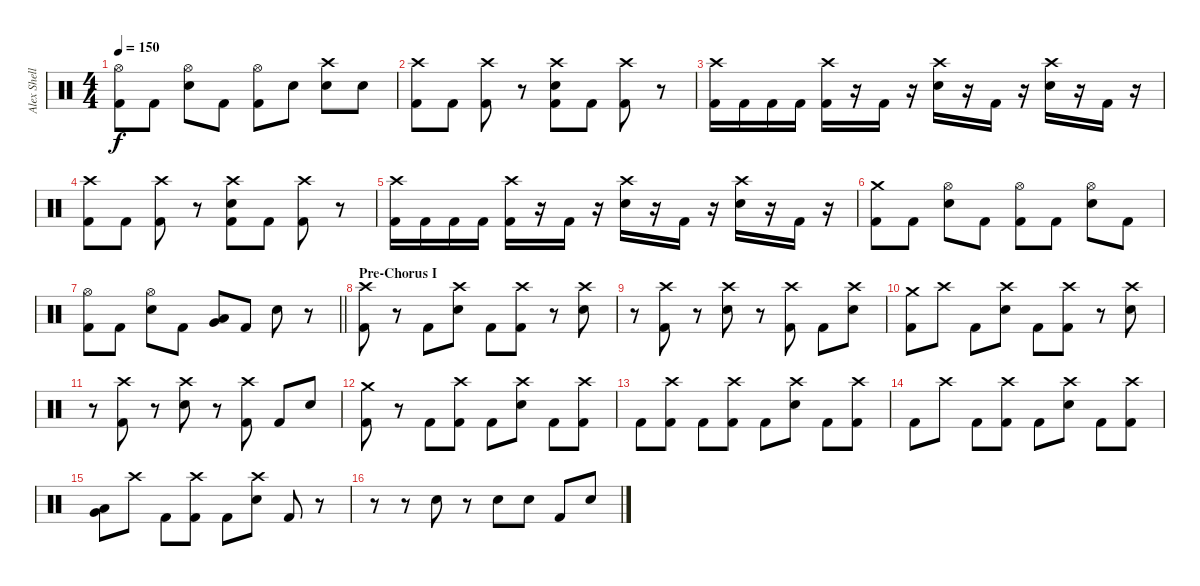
\track ("Alex Shellnutt" "Alex Shell") {instrument percussion}
\staff {score}
\articulation defaults
\ts (4 4)
\tempo 150
\clef neutral
\ks c
("Hi-Hat (open)" "Kick (hit) 2").8{dy f} "Kick (hit) 2".8 ("Hi-Hat (open)" "Snare (hit) 2").8 "Kick (hit) 2".8 ("Hi-Hat (open)" "Kick (hit) 2").8 "Snare (hit) 2".8 ("Crash high (hit)" "Snare (hit) 2").8 "Snare (hit) 2".8 |
("Crash high (hit)" "Kick (hit) 2").8 "Kick (hit) 2".8 ("Crash high (hit)" "Kick (hit) 2").8 r.8 ("Crash high (hit)" "Snare (hit) 2" "Kick (hit) 2").8 "Kick (hit) 2".8 ("Crash high (hit)" "Kick (hit) 2").8 r.8 |
("Crash high (hit)" "Kick (hit) 2").16 "Kick (hit) 2".16 "Kick (hit) 2".16 "Kick (hit) 2".16 ("Crash high (hit)" "Kick (hit) 2").16 r.16 "Kick (hit) 2".16 r.16 ("Crash high (hit)" "Snare (hit) 2").16 r.16 "Kick (hit) 2".16 r.16 ("Crash high (hit)" "Snare (hit) 2").16 r.16 "Kick (hit) 2".16 r.16 |
("Crash high (hit)" "Kick (hit) 2").8 "Kick (hit) 2".8 ("Crash high (hit)" "Kick (hit) 2").8 r.8 ("Crash high (hit)" "Snare (hit) 2" "Kick (hit) 2").8 "Kick (hit) 2".8 ("Crash high (hit)" "Kick (hit) 2").8 r.8 |
("Crash high (hit)" "Kick (hit) 2").16 "Kick (hit) 2".16 "Kick (hit) 2".16 "Kick (hit) 2".16 ("Crash high (hit)" "Kick (hit) 2").16 r.16 "Kick (hit) 2".16 r.16 ("Crash high (hit)" "Snare (hit) 2").16 r.16 "Kick (hit) 2".16 r.16 ("Crash high (hit)" "Snare (hit) 2").16 r.16 "Kick (hit) 2".16 r.16 |
("Crash medium (hit)" "Kick (hit) 2").8 "Kick (hit) 2".8 ("Hi-Hat (open)" "Snare (hit) 2").8 "Kick (hit) 2".8 ("Hi-Hat (open)" "Kick (hit) 2").8 "Kick (hit) 2".8 ("Hi-Hat (open)" "Snare (hit) 2").8 "Kick (hit) 2".8 |
\barLineRight lightlight
("Hi-Hat (open)" "Kick (hit) 2").8 "Kick (hit) 2".8 ("Hi-Hat (open)" "Snare (hit) 2").8 "Kick (hit) 2".8 ("Very Low Tom (hit)" "Low Floor Tom (hit)").8 "Kick (hit) 2".8 "Snare (hit) 2".8 r.8 |
\section ("" "Pre-Chorus I")
("Crash high (hit)" "Kick (hit) 2").8 r.8 "Kick (hit) 2".8 ("Crash high (hit)" "Snare (hit) 2").8 "Kick (hit) 2".8 ("Crash high (hit)" "Kick (hit) 2").8 r.8 ("Crash high (hit)" "Snare (hit) 2").8 |
r.8 ("Crash high (hit)" "Kick (hit) 2").8 r.8 ("Crash high (hit)" "Snare (hit) 2").8 r.8 ("Crash high (hit)" "Kick (hit) 2").8 "Kick (hit) 2".8 ("Crash high (hit)" "Snare (hit) 2").8 |
("Crash medium (hit)" "Kick (hit) 2").8 "Crash high (hit)".8 "Kick (hit) 2".8 ("Crash high (hit)" "Snare (hit) 2").8 "Kick (hit) 2".8 ("Crash high (hit)" "Kick (hit) 2").8 r.8 ("Crash high (hit)" "Snare (hit) 2").8 |
r.8 ("Crash high (hit)" "Kick (hit) 2").8 r.8 ("Crash high (hit)" "Snare (hit) 2").8 r.8 ("Crash high (hit)" "Kick (hit) 2").8 "Kick (hit) 2".8 "Snare (hit) 2".8 |
("Crash medium (hit)" "Kick (hit) 2").8 r.8 "Kick (hit) 2".8 ("Crash high (hit)" "Kick (hit) 2").8 "Kick (hit) 2".8 ("Crash high (hit)" "Snare (hit) 2").8 "Kick (hit) 2".8 ("Crash high (hit)" "Kick (hit) 2").8 |
"Kick (hit) 2".8 ("Crash high (hit)" "Kick (hit) 2").8 "Kick (hit) 2".8 ("Crash high (hit)" "Kick (hit) 2").8 "Kick (hit) 2".8 ("Crash high (hit)" "Snare (hit) 2").8 "Kick (hit) 2".8 ("Crash high (hit)" "Kick (hit) 2").8 |
"Kick (hit) 2".8 "Crash high (hit)".8 "Kick (hit) 2".8 ("Crash high (hit)" "Kick (hit) 2").8 "Kick (hit) 2".8 ("Crash high (hit)" "Snare (hit) 2").8 "Kick (hit) 2".8 ("Crash high (hit)" "Kick (hit) 2").8 |
("Low Floor Tom (hit)" "Very Low Tom (hit)").8 "Crash high (hit)".8 "Kick (hit) 2".8 ("Crash high (hit)" "Kick (hit) 2").8 "Kick (hit) 2".8 ("Crash high (hit)" "Snare (hit) 2").8 "Kick (hit) 2".8 r.8 |
r.8 r.8 "Snare (hit) 2".8 r.8 "Snare (hit) 2".8 "Snare (hit) 2".8 "Kick (hit) 2".8 "Snare (hit) 2".8
